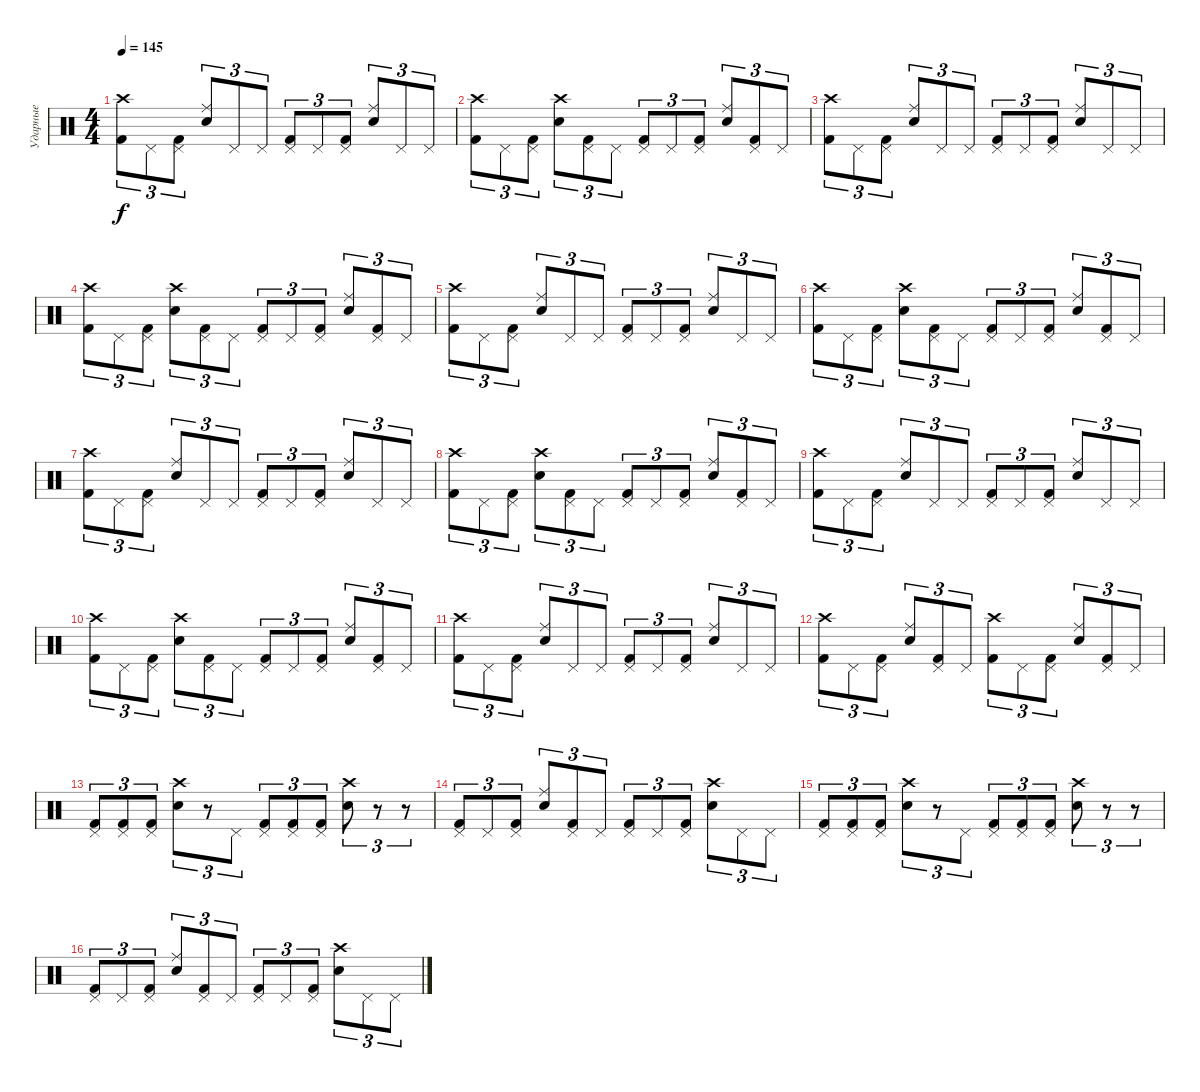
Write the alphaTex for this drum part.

\track ("Ударные" "Ударные") {instrument percussion}
\staff {score}
\articulation defaults
\ts (4 4)
\tempo 145
\clef neutral
\ks c
("Kick (hit) 2" "Crash high (hit)").8{tu (3 2) dy f} "Pedal Hi-Hat (hit)".8{tu (3 2)} ("Kick (hit) 2" "Pedal Hi-Hat (hit)").8{tu (3 2)} ("Electric Snare (hit)" "Ride (middle)").8{tu (3 2)} "Pedal Hi-Hat (hit)".8{tu (3 2)} "Pedal Hi-Hat (hit)".8{tu (3 2)} ("Kick (hit) 2" "Pedal Hi-Hat (hit)").8{tu (3 2)} "Pedal Hi-Hat (hit)".8{tu (3 2)} ("Pedal Hi-Hat (hit)" "Kick (hit) 2").8{tu (3 2)} ("Electric Snare (hit)" "Ride (middle)").8{tu (3 2)} "Pedal Hi-Hat (hit)".8{tu (3 2)} "Pedal Hi-Hat (hit)".8{tu (3 2)} |
("Kick (hit) 2" "Crash high (hit)").8{tu (3 2)} "Pedal Hi-Hat (hit)".8{tu (3 2)} ("Kick (hit) 2" "Pedal Hi-Hat (hit)").8{tu (3 2)} ("Electric Snare (hit)" "Crash high (hit)").8{tu (3 2)} ("Kick (hit) 2" "Pedal Hi-Hat (hit)").8{tu (3 2)} "Pedal Hi-Hat (hit)".8{tu (3 2)} ("Kick (hit) 2" "Pedal Hi-Hat (hit)").8{tu (3 2)} "Pedal Hi-Hat (hit)".8{tu (3 2)} ("Pedal Hi-Hat (hit)" "Kick (hit) 2").8{tu (3 2)} ("Electric Snare (hit)" "Ride (middle)").8{tu (3 2)} ("Kick (hit) 2" "Pedal Hi-Hat (hit)").8{tu (3 2)} "Pedal Hi-Hat (hit)".8{tu (3 2)} |
("Kick (hit) 2" "Crash high (hit)").8{tu (3 2)} "Pedal Hi-Hat (hit)".8{tu (3 2)} ("Kick (hit) 2" "Pedal Hi-Hat (hit)").8{tu (3 2)} ("Electric Snare (hit)" "Ride (middle)").8{tu (3 2)} "Pedal Hi-Hat (hit)".8{tu (3 2)} "Pedal Hi-Hat (hit)".8{tu (3 2)} ("Kick (hit) 2" "Pedal Hi-Hat (hit)").8{tu (3 2)} "Pedal Hi-Hat (hit)".8{tu (3 2)} ("Pedal Hi-Hat (hit)" "Kick (hit) 2").8{tu (3 2)} ("Electric Snare (hit)" "Ride (middle)").8{tu (3 2)} "Pedal Hi-Hat (hit)".8{tu (3 2)} "Pedal Hi-Hat (hit)".8{tu (3 2)} |
("Kick (hit) 2" "Crash high (hit)").8{tu (3 2)} "Pedal Hi-Hat (hit)".8{tu (3 2)} ("Kick (hit) 2" "Pedal Hi-Hat (hit)").8{tu (3 2)} ("Electric Snare (hit)" "Crash high (hit)").8{tu (3 2)} ("Kick (hit) 2" "Pedal Hi-Hat (hit)").8{tu (3 2)} "Pedal Hi-Hat (hit)".8{tu (3 2)} ("Kick (hit) 2" "Pedal Hi-Hat (hit)").8{tu (3 2)} "Pedal Hi-Hat (hit)".8{tu (3 2)} ("Pedal Hi-Hat (hit)" "Kick (hit) 2").8{tu (3 2)} ("Electric Snare (hit)" "Ride (middle)").8{tu (3 2)} ("Kick (hit) 2" "Pedal Hi-Hat (hit)").8{tu (3 2)} "Pedal Hi-Hat (hit)".8{tu (3 2)} |
("Kick (hit) 2" "Crash high (hit)").8{tu (3 2)} "Pedal Hi-Hat (hit)".8{tu (3 2)} ("Kick (hit) 2" "Pedal Hi-Hat (hit)").8{tu (3 2)} ("Electric Snare (hit)" "Ride (middle)").8{tu (3 2)} "Pedal Hi-Hat (hit)".8{tu (3 2)} "Pedal Hi-Hat (hit)".8{tu (3 2)} ("Kick (hit) 2" "Pedal Hi-Hat (hit)").8{tu (3 2)} "Pedal Hi-Hat (hit)".8{tu (3 2)} ("Pedal Hi-Hat (hit)" "Kick (hit) 2").8{tu (3 2)} ("Electric Snare (hit)" "Ride (middle)").8{tu (3 2)} "Pedal Hi-Hat (hit)".8{tu (3 2)} "Pedal Hi-Hat (hit)".8{tu (3 2)} |
("Kick (hit) 2" "Crash high (hit)").8{tu (3 2)} "Pedal Hi-Hat (hit)".8{tu (3 2)} ("Kick (hit) 2" "Pedal Hi-Hat (hit)").8{tu (3 2)} ("Electric Snare (hit)" "Crash high (hit)").8{tu (3 2)} ("Kick (hit) 2" "Pedal Hi-Hat (hit)").8{tu (3 2)} "Pedal Hi-Hat (hit)".8{tu (3 2)} ("Kick (hit) 2" "Pedal Hi-Hat (hit)").8{tu (3 2)} "Pedal Hi-Hat (hit)".8{tu (3 2)} ("Pedal Hi-Hat (hit)" "Kick (hit) 2").8{tu (3 2)} ("Electric Snare (hit)" "Ride (middle)").8{tu (3 2)} ("Kick (hit) 2" "Pedal Hi-Hat (hit)").8{tu (3 2)} "Pedal Hi-Hat (hit)".8{tu (3 2)} |
("Kick (hit) 2" "Crash high (hit)").8{tu (3 2)} "Pedal Hi-Hat (hit)".8{tu (3 2)} ("Kick (hit) 2" "Pedal Hi-Hat (hit)").8{tu (3 2)} ("Electric Snare (hit)" "Ride (middle)").8{tu (3 2)} "Pedal Hi-Hat (hit)".8{tu (3 2)} "Pedal Hi-Hat (hit)".8{tu (3 2)} ("Kick (hit) 2" "Pedal Hi-Hat (hit)").8{tu (3 2)} "Pedal Hi-Hat (hit)".8{tu (3 2)} ("Pedal Hi-Hat (hit)" "Kick (hit) 2").8{tu (3 2)} ("Electric Snare (hit)" "Ride (middle)").8{tu (3 2)} "Pedal Hi-Hat (hit)".8{tu (3 2)} "Pedal Hi-Hat (hit)".8{tu (3 2)} |
("Kick (hit) 2" "Crash high (hit)").8{tu (3 2)} "Pedal Hi-Hat (hit)".8{tu (3 2)} ("Kick (hit) 2" "Pedal Hi-Hat (hit)").8{tu (3 2)} ("Electric Snare (hit)" "Crash high (hit)").8{tu (3 2)} ("Kick (hit) 2" "Pedal Hi-Hat (hit)").8{tu (3 2)} "Pedal Hi-Hat (hit)".8{tu (3 2)} ("Kick (hit) 2" "Pedal Hi-Hat (hit)").8{tu (3 2)} "Pedal Hi-Hat (hit)".8{tu (3 2)} ("Pedal Hi-Hat (hit)" "Kick (hit) 2").8{tu (3 2)} ("Electric Snare (hit)" "Ride (middle)").8{tu (3 2)} ("Kick (hit) 2" "Pedal Hi-Hat (hit)").8{tu (3 2)} "Pedal Hi-Hat (hit)".8{tu (3 2)} |
("Kick (hit) 2" "Crash high (hit)").8{tu (3 2)} "Pedal Hi-Hat (hit)".8{tu (3 2)} ("Kick (hit) 2" "Pedal Hi-Hat (hit)").8{tu (3 2)} ("Electric Snare (hit)" "Ride (middle)").8{tu (3 2)} "Pedal Hi-Hat (hit)".8{tu (3 2)} "Pedal Hi-Hat (hit)".8{tu (3 2)} ("Kick (hit) 2" "Pedal Hi-Hat (hit)").8{tu (3 2)} "Pedal Hi-Hat (hit)".8{tu (3 2)} ("Pedal Hi-Hat (hit)" "Kick (hit) 2").8{tu (3 2)} ("Electric Snare (hit)" "Ride (middle)").8{tu (3 2)} "Pedal Hi-Hat (hit)".8{tu (3 2)} "Pedal Hi-Hat (hit)".8{tu (3 2)} |
("Kick (hit) 2" "Crash high (hit)").8{tu (3 2)} "Pedal Hi-Hat (hit)".8{tu (3 2)} ("Kick (hit) 2" "Pedal Hi-Hat (hit)").8{tu (3 2)} ("Electric Snare (hit)" "Crash high (hit)").8{tu (3 2)} ("Kick (hit) 2" "Pedal Hi-Hat (hit)").8{tu (3 2)} "Pedal Hi-Hat (hit)".8{tu (3 2)} ("Kick (hit) 2" "Pedal Hi-Hat (hit)").8{tu (3 2)} "Pedal Hi-Hat (hit)".8{tu (3 2)} ("Pedal Hi-Hat (hit)" "Kick (hit) 2").8{tu (3 2)} ("Electric Snare (hit)" "Ride (middle)").8{tu (3 2)} ("Kick (hit) 2" "Pedal Hi-Hat (hit)").8{tu (3 2)} "Pedal Hi-Hat (hit)".8{tu (3 2)} |
("Kick (hit) 2" "Crash high (hit)").8{tu (3 2)} "Pedal Hi-Hat (hit)".8{tu (3 2)} ("Kick (hit) 2" "Pedal Hi-Hat (hit)").8{tu (3 2)} ("Electric Snare (hit)" "Ride (middle)").8{tu (3 2)} "Pedal Hi-Hat (hit)".8{tu (3 2)} "Pedal Hi-Hat (hit)".8{tu (3 2)} ("Kick (hit) 2" "Pedal Hi-Hat (hit)").8{tu (3 2)} "Pedal Hi-Hat (hit)".8{tu (3 2)} ("Pedal Hi-Hat (hit)" "Kick (hit) 2").8{tu (3 2)} ("Electric Snare (hit)" "Ride (middle)").8{tu (3 2)} "Pedal Hi-Hat (hit)".8{tu (3 2)} "Pedal Hi-Hat (hit)".8{tu (3 2)} |
("Kick (hit) 2" "Crash high (hit)").8{tu (3 2)} "Pedal Hi-Hat (hit)".8{tu (3 2)} ("Kick (hit) 2" "Pedal Hi-Hat (hit)").8{tu (3 2)} ("Electric Snare (hit)" "Ride (middle)").8{tu (3 2)} ("Kick (hit) 2" "Pedal Hi-Hat (hit)").8{tu (3 2)} "Pedal Hi-Hat (hit)".8{tu (3 2)} ("Kick (hit) 2" "Crash high (hit)").8{tu (3 2)} "Pedal Hi-Hat (hit)".8{tu (3 2)} ("Pedal Hi-Hat (hit)" "Kick (hit) 2").8{tu (3 2)} ("Electric Snare (hit)" "Ride (middle)").8{tu (3 2)} ("Kick (hit) 2" "Pedal Hi-Hat (hit)").8{tu (3 2)} "Pedal Hi-Hat (hit)".8{tu (3 2)} |
("Kick (hit) 2" "Pedal Hi-Hat (hit)").8{tu (3 2)} ("Kick (hit) 2" "Pedal Hi-Hat (hit)").8{tu (3 2)} ("Kick (hit) 2" "Pedal Hi-Hat (hit)").8{tu (3 2)} ("Crash high (hit)" "Electric Snare (hit)").8{tu (3 2)} r.8{tu (3 2)} "Pedal Hi-Hat (hit)".8{tu (3 2)} ("Kick (hit) 2" "Pedal Hi-Hat (hit)").8{tu (3 2)} ("Kick (hit) 2" "Pedal Hi-Hat (hit)").8{tu (3 2)} ("Kick (hit) 2" "Pedal Hi-Hat (hit)").8{tu (3 2)} ("Electric Snare (hit)" "Crash high (hit)").8{tu (3 2)} r.8{tu (3 2)} r.8{tu (3 2)} |
("Kick (hit) 2" "Pedal Hi-Hat (hit)").8{tu (3 2)} "Pedal Hi-Hat (hit)".8{tu (3 2)} ("Kick (hit) 2" "Pedal Hi-Hat (hit)").8{tu (3 2)} ("Electric Snare (hit)" "Ride (middle)").8{tu (3 2)} ("Kick (hit) 2" "Pedal Hi-Hat (hit)").8{tu (3 2)} "Pedal Hi-Hat (hit)".8{tu (3 2)} ("Kick (hit) 2" "Pedal Hi-Hat (hit)").8{tu (3 2)} "Pedal Hi-Hat (hit)".8{tu (3 2)} ("Pedal Hi-Hat (hit)" "Kick (hit) 2").8{tu (3 2)} ("Electric Snare (hit)" "Crash high (hit)").8{tu (3 2)} "Pedal Hi-Hat (hit)".8{tu (3 2)} "Pedal Hi-Hat (hit)".8{tu (3 2)} |
("Kick (hit) 2" "Pedal Hi-Hat (hit)").8{tu (3 2)} ("Kick (hit) 2" "Pedal Hi-Hat (hit)").8{tu (3 2)} ("Kick (hit) 2" "Pedal Hi-Hat (hit)").8{tu (3 2)} ("Crash high (hit)" "Electric Snare (hit)").8{tu (3 2)} r.8{tu (3 2)} "Pedal Hi-Hat (hit)".8{tu (3 2)} ("Kick (hit) 2" "Pedal Hi-Hat (hit)").8{tu (3 2)} ("Kick (hit) 2" "Pedal Hi-Hat (hit)").8{tu (3 2)} ("Kick (hit) 2" "Pedal Hi-Hat (hit)").8{tu (3 2)} ("Electric Snare (hit)" "Crash high (hit)").8{tu (3 2)} r.8{tu (3 2)} r.8{tu (3 2)} |
("Kick (hit) 2" "Pedal Hi-Hat (hit)").8{tu (3 2)} "Pedal Hi-Hat (hit)".8{tu (3 2)} ("Kick (hit) 2" "Pedal Hi-Hat (hit)").8{tu (3 2)} ("Electric Snare (hit)" "Ride (middle)").8{tu (3 2)} ("Kick (hit) 2" "Pedal Hi-Hat (hit)").8{tu (3 2)} "Pedal Hi-Hat (hit)".8{tu (3 2)} ("Kick (hit) 2" "Pedal Hi-Hat (hit)").8{tu (3 2)} "Pedal Hi-Hat (hit)".8{tu (3 2)} ("Pedal Hi-Hat (hit)" "Kick (hit) 2").8{tu (3 2)} ("Electric Snare (hit)" "Crash high (hit)").8{tu (3 2)} "Pedal Hi-Hat (hit)".8{tu (3 2)} "Pedal Hi-Hat (hit)".8{tu (3 2)}
